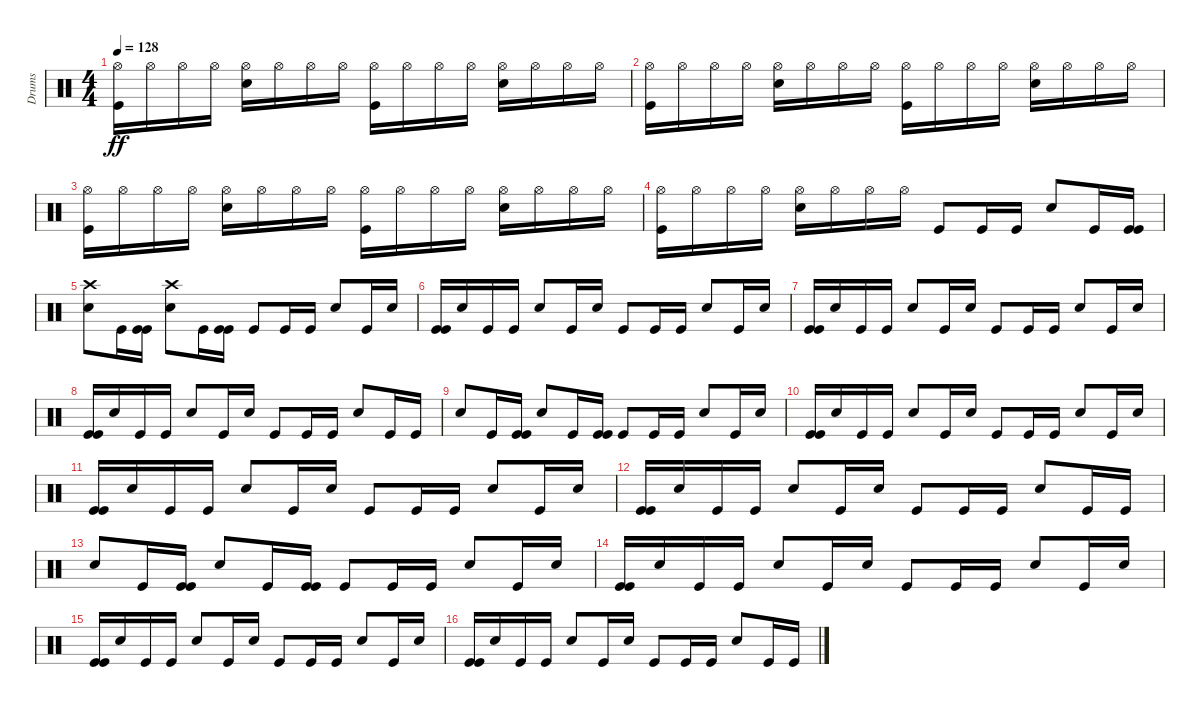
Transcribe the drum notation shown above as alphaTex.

\track ("Drums" "Drums") {instrument percussion}
\staff {score}
\articulation defaults
\ts (4 4)
\tempo 128
\clef neutral
\ks c
("Kick (hit)" "Hi-Hat (open)").16{dy ff} "Hi-Hat (open)".16 "Hi-Hat (open)".16 "Hi-Hat (open)".16 ("Snare (hit) 2" "Hi-Hat (open)").16 "Hi-Hat (open)".16 "Hi-Hat (open)".16 "Hi-Hat (open)".16 ("Kick (hit)" "Hi-Hat (open)").16 "Hi-Hat (open)".16 "Hi-Hat (open)".16 "Hi-Hat (open)".16 ("Snare (hit) 2" "Hi-Hat (open)").16 "Hi-Hat (open)".16 "Hi-Hat (open)".16 "Hi-Hat (open)".16 |
("Kick (hit)" "Hi-Hat (open)").16 "Hi-Hat (open)".16 "Hi-Hat (open)".16 "Hi-Hat (open)".16 ("Snare (hit) 2" "Hi-Hat (open)").16 "Hi-Hat (open)".16 "Hi-Hat (open)".16 "Hi-Hat (open)".16 ("Kick (hit)" "Hi-Hat (open)").16 "Hi-Hat (open)".16 "Hi-Hat (open)".16 "Hi-Hat (open)".16 ("Snare (hit) 2" "Hi-Hat (open)").16 "Hi-Hat (open)".16 "Hi-Hat (open)".16 "Hi-Hat (open)".16 |
("Kick (hit)" "Hi-Hat (open)").16 "Hi-Hat (open)".16 "Hi-Hat (open)".16 "Hi-Hat (open)".16 ("Snare (hit) 2" "Hi-Hat (open)").16 "Hi-Hat (open)".16 "Hi-Hat (open)".16 "Hi-Hat (open)".16 ("Kick (hit)" "Hi-Hat (open)").16 "Hi-Hat (open)".16 "Hi-Hat (open)".16 "Hi-Hat (open)".16 ("Snare (hit) 2" "Hi-Hat (open)").16 "Hi-Hat (open)".16 "Hi-Hat (open)".16 "Hi-Hat (open)".16 |
("Kick (hit)" "Hi-Hat (open)").16 "Hi-Hat (open)".16 "Hi-Hat (open)".16 "Hi-Hat (open)".16 ("Snare (hit) 2" "Hi-Hat (open)").16 "Hi-Hat (open)".16 "Hi-Hat (open)".16 "Hi-Hat (open)".16 "Kick (hit)".8 "Kick (hit)".16 "Kick (hit)".16 "Snare (hit) 2".8 "Kick (hit)".16 ("Kick (hit)" "Kick (hit)").16 |
("Snare (hit) 2" "Crash high (hit)").8 "Kick (hit)".16 ("Kick (hit)" "Kick (hit)").16 ("Snare (hit) 2" "Crash high (hit)").8 "Kick (hit)".16 ("Kick (hit)" "Kick (hit)").16 "Kick (hit)".8 "Kick (hit)".16 "Kick (hit)".16 "Snare (hit) 2".8 "Kick (hit)".16 "Snare (hit) 2".16 |
("Kick (hit)" "Kick (hit)").16 "Snare (hit) 2".16 "Kick (hit)".16 "Kick (hit)".16 "Snare (hit) 2".8 "Kick (hit)".16 "Snare (hit) 2".16 "Kick (hit)".8 "Kick (hit)".16 "Kick (hit)".16 "Snare (hit) 2".8 "Kick (hit)".16 "Snare (hit) 2".16 |
("Kick (hit)" "Kick (hit)").16 "Snare (hit) 2".16 "Kick (hit)".16 "Kick (hit)".16 "Snare (hit) 2".8 "Kick (hit)".16 "Snare (hit) 2".16 "Kick (hit)".8 "Kick (hit)".16 "Kick (hit)".16 "Snare (hit) 2".8 "Kick (hit)".16 "Snare (hit) 2".16 |
("Kick (hit)" "Kick (hit)").16 "Snare (hit) 2".16 "Kick (hit)".16 "Kick (hit)".16 "Snare (hit) 2".8 "Kick (hit)".16 "Snare (hit) 2".16 "Kick (hit)".8 "Kick (hit)".16 "Kick (hit)".16 "Snare (hit) 2".8 "Kick (hit)".16 "Kick (hit)".16 |
"Snare (hit) 2".8 "Kick (hit)".16 ("Kick (hit)" "Kick (hit)").16 "Snare (hit) 2".8 "Kick (hit)".16 ("Kick (hit)" "Kick (hit)").16 "Kick (hit)".8 "Kick (hit)".16 "Kick (hit)".16 "Snare (hit) 2".8 "Kick (hit)".16 "Snare (hit) 2".16 |
("Kick (hit)" "Kick (hit)").16 "Snare (hit) 2".16 "Kick (hit)".16 "Kick (hit)".16 "Snare (hit) 2".8 "Kick (hit)".16 "Snare (hit) 2".16 "Kick (hit)".8 "Kick (hit)".16 "Kick (hit)".16 "Snare (hit) 2".8 "Kick (hit)".16 "Snare (hit) 2".16 |
("Kick (hit)" "Kick (hit)").16 "Snare (hit) 2".16 "Kick (hit)".16 "Kick (hit)".16 "Snare (hit) 2".8 "Kick (hit)".16 "Snare (hit) 2".16 "Kick (hit)".8 "Kick (hit)".16 "Kick (hit)".16 "Snare (hit) 2".8 "Kick (hit)".16 "Snare (hit) 2".16 |
("Kick (hit)" "Kick (hit)").16 "Snare (hit) 2".16 "Kick (hit)".16 "Kick (hit)".16 "Snare (hit) 2".8 "Kick (hit)".16 "Snare (hit) 2".16 "Kick (hit)".8 "Kick (hit)".16 "Kick (hit)".16 "Snare (hit) 2".8 "Kick (hit)".16 "Kick (hit)".16 |
"Snare (hit) 2".8 "Kick (hit)".16 ("Kick (hit)" "Kick (hit)").16 "Snare (hit) 2".8 "Kick (hit)".16 ("Kick (hit)" "Kick (hit)").16 "Kick (hit)".8 "Kick (hit)".16 "Kick (hit)".16 "Snare (hit) 2".8 "Kick (hit)".16 "Snare (hit) 2".16 |
("Kick (hit)" "Kick (hit)").16 "Snare (hit) 2".16 "Kick (hit)".16 "Kick (hit)".16 "Snare (hit) 2".8 "Kick (hit)".16 "Snare (hit) 2".16 "Kick (hit)".8 "Kick (hit)".16 "Kick (hit)".16 "Snare (hit) 2".8 "Kick (hit)".16 "Snare (hit) 2".16 |
("Kick (hit)" "Kick (hit)").16 "Snare (hit) 2".16 "Kick (hit)".16 "Kick (hit)".16 "Snare (hit) 2".8 "Kick (hit)".16 "Snare (hit) 2".16 "Kick (hit)".8 "Kick (hit)".16 "Kick (hit)".16 "Snare (hit) 2".8 "Kick (hit)".16 "Snare (hit) 2".16 |
("Kick (hit)" "Kick (hit)").16 "Snare (hit) 2".16 "Kick (hit)".16 "Kick (hit)".16 "Snare (hit) 2".8 "Kick (hit)".16 "Snare (hit) 2".16 "Kick (hit)".8 "Kick (hit)".16 "Kick (hit)".16 "Snare (hit) 2".8 "Kick (hit)".16 "Kick (hit)".16
